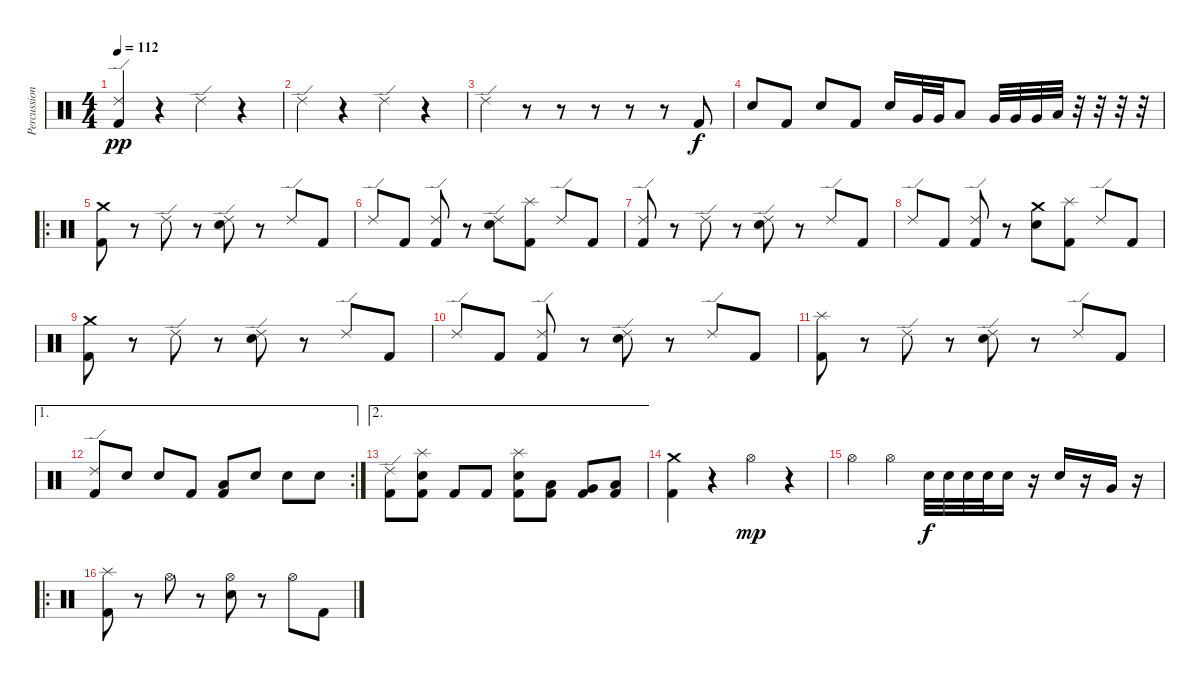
\track ("Percussion" "Percussion") {instrument percussion}
\staff {score}
\articulation defaults
\ts (4 4)
\tempo 112
\clef neutral
\ks c
("Ride (edge) 2" "Kick (hit) 2").4{dy pp} r.4 "Ride (edge) 2".4 r.4 |
"Ride (edge) 2".4 r.4 "Ride (edge) 2".4 r.4 |
"Ride (edge) 2".4 r.8 r.8 r.8 r.8 r.8 "Kick (hit) 2".8{dy f} |
"Snare (hit) 2".8 "Kick (hit) 2".8 "Snare (hit) 2".8 "Kick (hit) 2".8 "Snare (hit) 2".16 "Very Low Tom (hit)".32 "Very Low Tom (hit)".32 "Low Floor Tom (hit)".8 "Very Low Tom (hit)".32 "Very Low Tom (hit)".32 "Very Low Tom (hit)".32 "Low Floor Tom (hit)".32 r.32 r.32 r.32 r.32 |
\ro
("Crash medium (hit)" "Kick (hit) 2").8 r.8 "Ride (edge) 2".8 r.8 ("Ride (edge) 2" "Snare (hit) 2").8 r.8 "Ride (edge) 2".8 "Kick (hit) 2".8 |
"Ride (edge) 2".8 "Kick (hit) 2".8 ("Ride (edge) 2" "Kick (hit) 2").8 r.8 ("Ride (edge) 2" "Snare (hit) 2").8 ("Splash (hit)" "Kick (hit) 2").8 "Ride (edge) 2".8 "Kick (hit) 2".8 |
("Ride (edge) 2" "Kick (hit) 2").8 r.8 "Ride (edge) 2".8 r.8 ("Ride (edge) 2" "Snare (hit) 2").8 r.8 "Ride (edge) 2".8 "Kick (hit) 2".8 |
"Ride (edge) 2".8 "Kick (hit) 2".8 ("Ride (edge) 2" "Kick (hit) 2").8 r.8 ("Crash medium (hit)" "Snare (hit) 2").8 ("Splash (hit)" "Kick (hit) 2").8 "Ride (edge) 2".8 "Kick (hit) 2".8 |
("Crash medium (hit)" "Kick (hit) 2").8 r.8 "Ride (edge) 2".8 r.8 ("Ride (edge) 2" "Snare (hit) 2").8 r.8 "Ride (edge) 2".8 "Kick (hit) 2".8 |
"Ride (edge) 2".8 "Kick (hit) 2".8 ("Ride (edge) 2" "Kick (hit) 2").8 r.8 ("Ride (edge) 2" "Snare (hit) 2").8 r.8 "Ride (edge) 2".8 "Kick (hit) 2".8 |
("Splash (hit)" "Kick (hit) 2").8 r.8 "Ride (edge) 2".8 r.8 ("Ride (edge) 2" "Snare (hit) 2").8 r.8 "Ride (edge) 2".8 "Kick (hit) 2".8 |
\ae 1
\rc 2
("Ride (edge) 2" "Kick (hit) 2").8 "Snare (hit) 2".8 "Snare (hit) 2".8 "Kick (hit) 2".8 ("Low Floor Tom (hit)" "Kick (hit) 2").8 "Snare (hit) 2".8 "Snare (hit) 2".8 "Snare (hit) 2".8 |
\ae 2
("Ride (edge) 2" "Kick (hit) 2").8 ("Splash (hit)" "Snare (hit) 2" "Kick (hit) 2").8 "Kick (hit) 2".8 "Kick (hit) 2".8 ("Splash (hit)" "Snare (hit) 2" "Kick (hit) 2").8 ("Low Tom (hit)" "Kick (hit) 2").8 ("Very Low Tom (hit)" "Kick (hit) 2").8 ("Low Floor Tom (hit)" "Kick (hit) 2").8 |
("Crash medium (hit)" "Kick (hit) 2").4 r.4 "Hi-Hat (open)".4{dy mp} r.4 |
"Hi-Hat (open)".4 "Hi-Hat (open)".4 "Snare (hit) 2".32{dy f} "Snare (hit) 2".32 "Snare (hit) 2".32 "Snare (hit) 2".32 "Snare (hit) 2".16 r.16 "Snare (hit) 2".16 r.16 "Very Low Tom (hit)".16 r.16 |
\ro
("Splash (hit)" "Kick (hit) 2").8 r.8 "Hi-Hat (open)".8 r.8 ("Hi-Hat (open)" "Snare (hit) 2").8 r.8 "Hi-Hat (open)".8 "Kick (hit) 2".8
